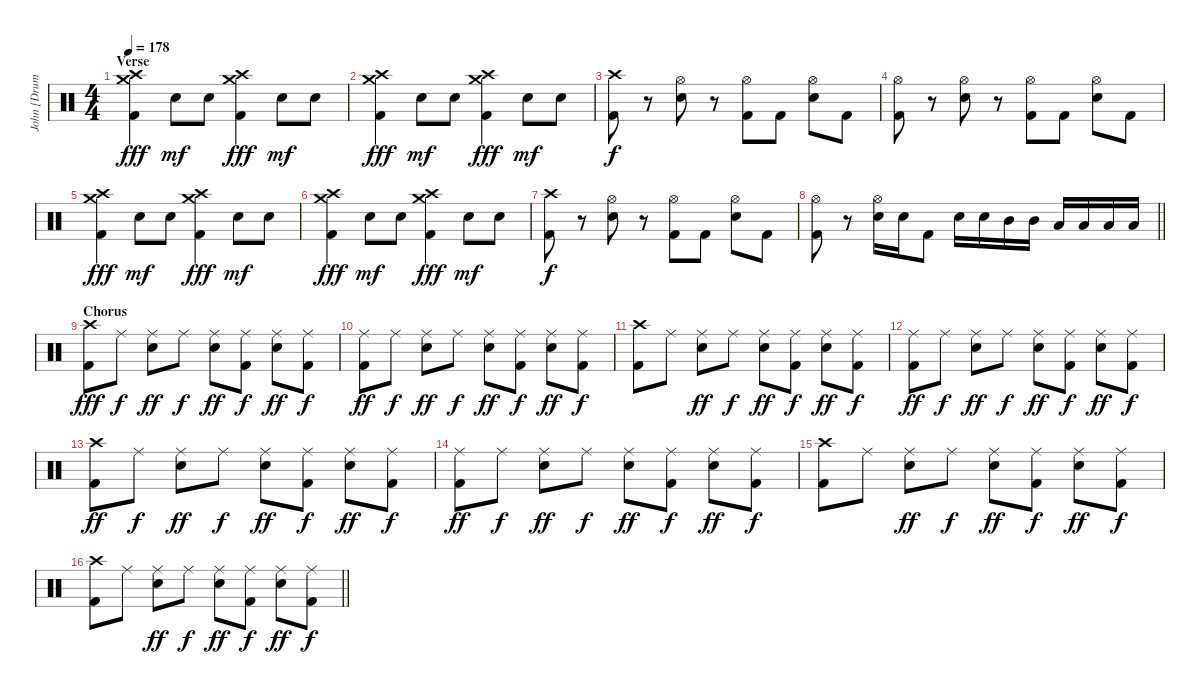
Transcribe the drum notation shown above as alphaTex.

\track ("John [Drums]" "John [Drum") {instrument percussion}
\staff {score}
\articulation defaults
\ts (4 4)
\section ("" "Verse")
\tempo 178
\clef neutral
\ks c
("Crash high (hit)" "Crash medium (hit)" "Kick (hit) 2").4{dy fff balance 8} "Electric Snare (hit)".8{dy mf} "Electric Snare (hit)".8 ("Crash medium (hit)" "Crash high (hit)" "Kick (hit) 2").4{dy fff} "Electric Snare (hit)".8{dy mf} "Electric Snare (hit)".8 |
("Crash high (hit)" "Crash medium (hit)" "Kick (hit) 2").4{dy fff} "Electric Snare (hit)".8{dy mf} "Electric Snare (hit)".8 ("Crash medium (hit)" "Crash high (hit)" "Kick (hit) 2").4{dy fff} "Electric Snare (hit)".8{dy mf} "Electric Snare (hit)".8 |
("Crash high (hit)" "Kick (hit) 2").8{dy f} r.8 ("Hi-Hat (open)" "Electric Snare (hit)").8 r.8 ("Hi-Hat (open)" "Kick (hit) 2").8 "Kick (hit) 2".8 ("Hi-Hat (open)" "Electric Snare (hit)").8 "Kick (hit) 2".8 |
("Hi-Hat (open)" "Kick (hit) 2").8 r.8 ("Hi-Hat (open)" "Electric Snare (hit)").8 r.8 ("Hi-Hat (open)" "Kick (hit) 2").8 "Kick (hit) 2".8 ("Hi-Hat (open)" "Electric Snare (hit)").8 "Kick (hit) 2".8 |
("Crash high (hit)" "Crash medium (hit)" "Kick (hit) 2").4{dy fff} "Electric Snare (hit)".8{dy mf} "Electric Snare (hit)".8 ("Crash medium (hit)" "Crash high (hit)" "Kick (hit) 2").4{dy fff} "Electric Snare (hit)".8{dy mf} "Electric Snare (hit)".8 |
("Crash high (hit)" "Crash medium (hit)" "Kick (hit) 2").4{dy fff} "Electric Snare (hit)".8{dy mf} "Electric Snare (hit)".8 ("Crash medium (hit)" "Crash high (hit)" "Kick (hit) 2").4{dy fff} "Electric Snare (hit)".8{dy mf} "Electric Snare (hit)".8 |
("Crash high (hit)" "Kick (hit) 2").8{dy f} r.8 ("Hi-Hat (open)" "Electric Snare (hit)").8 r.8 ("Hi-Hat (open)" "Kick (hit) 2").8 "Kick (hit) 2".8 ("Hi-Hat (open)" "Electric Snare (hit)").8 "Kick (hit) 2".8 |
\barLineRight lightlight
("Hi-Hat (open)" "Kick (hit) 2").8 r.8 ("Hi-Hat (open)" "Electric Snare (hit)").16 "Electric Snare (hit)".16 "Kick (hit) 2".8 "Electric Snare (hit)".16 "Electric Snare (hit)".16 "Mid Tom (hit)".16 "Mid Tom (hit)".16 "Low Tom (hit)".16 "Low Tom (hit)".16 "Low Tom (hit)".16 "Low Tom (hit)".16 |
\section ("" "Chorus")
("Crash high (hit)" "Kick (hit) 2").8{dy fff} "Ride (middle)".8{dy f} ("Ride (middle)" "Electric Snare (hit)").8{dy ff} "Ride (middle)".8{dy f} ("Ride (middle)" "Electric Snare (hit)").8{dy ff} ("Ride (middle)" "Kick (hit) 2").8{dy f} ("Ride (middle)" "Electric Snare (hit)").8{dy ff} ("Ride (middle)" "Kick (hit) 2").8{dy f} |
("Ride (middle)" "Kick (hit) 2").8{dy ff} "Ride (middle)".8{dy f} ("Ride (middle)" "Electric Snare (hit)").8{dy ff} "Ride (middle)".8{dy f} ("Ride (middle)" "Electric Snare (hit)").8{dy ff} ("Ride (middle)" "Kick (hit) 2").8{dy f} ("Ride (middle)" "Electric Snare (hit)").8{dy ff} ("Ride (middle)" "Kick (hit) 2").8{dy f} |
("Crash high (hit)" "Kick (hit) 2").8 "Ride (middle)".8 ("Ride (middle)" "Electric Snare (hit)").8{dy ff} "Ride (middle)".8{dy f} ("Ride (middle)" "Electric Snare (hit)").8{dy ff} ("Ride (middle)" "Kick (hit) 2").8{dy f} ("Ride (middle)" "Electric Snare (hit)").8{dy ff} ("Ride (middle)" "Kick (hit) 2").8{dy f} |
("Ride (middle)" "Kick (hit) 2").8{dy ff} "Ride (middle)".8{dy f} ("Ride (middle)" "Electric Snare (hit)").8{dy ff} "Ride (middle)".8{dy f} ("Ride (middle)" "Electric Snare (hit)").8{dy ff} ("Ride (middle)" "Kick (hit) 2").8{dy f} ("Ride (middle)" "Electric Snare (hit)").8{dy ff} ("Ride (middle)" "Kick (hit) 2").8{dy f} |
("Crash high (hit)" "Kick (hit) 2").8{dy ff} "Ride (middle)".8{dy f} ("Ride (middle)" "Electric Snare (hit)").8{dy ff} "Ride (middle)".8{dy f} ("Ride (middle)" "Electric Snare (hit)").8{dy ff} ("Ride (middle)" "Kick (hit) 2").8{dy f} ("Ride (middle)" "Electric Snare (hit)").8{dy ff} ("Ride (middle)" "Kick (hit) 2").8{dy f} |
("Ride (middle)" "Kick (hit) 2").8{dy ff} "Ride (middle)".8{dy f} ("Ride (middle)" "Electric Snare (hit)").8{dy ff} "Ride (middle)".8{dy f} ("Ride (middle)" "Electric Snare (hit)").8{dy ff} ("Ride (middle)" "Kick (hit) 2").8{dy f} ("Ride (middle)" "Electric Snare (hit)").8{dy ff} ("Ride (middle)" "Kick (hit) 2").8{dy f} |
("Crash high (hit)" "Kick (hit) 2").8 "Ride (middle)".8 ("Ride (middle)" "Electric Snare (hit)").8{dy ff} "Ride (middle)".8{dy f} ("Ride (middle)" "Electric Snare (hit)").8{dy ff} ("Ride (middle)" "Kick (hit) 2").8{dy f} ("Ride (middle)" "Electric Snare (hit)").8{dy ff} ("Ride (middle)" "Kick (hit) 2").8{dy f} |
\barLineRight lightlight
("Crash high (hit)" "Kick (hit) 2").8 "Ride (middle)".8 ("Ride (middle)" "Electric Snare (hit)").8{dy ff} "Ride (middle)".8{dy f} ("Ride (middle)" "Electric Snare (hit)").8{dy ff} ("Ride (middle)" "Kick (hit) 2").8{dy f} ("Ride (middle)" "Electric Snare (hit)").8{dy ff} ("Ride (middle)" "Kick (hit) 2").8{dy f}
